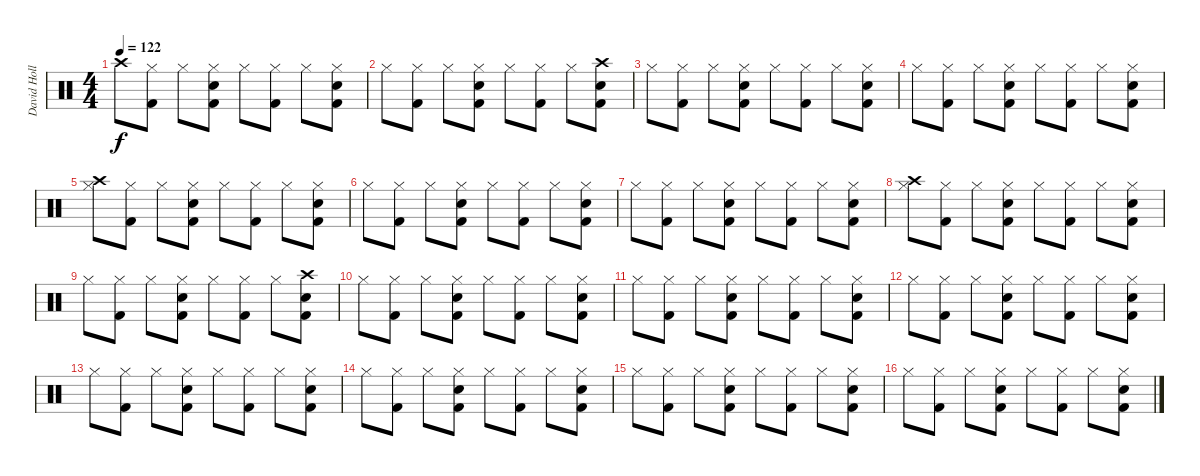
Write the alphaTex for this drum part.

\track ("David Holland" "David Holl") {instrument percussion}
\staff {score}
\articulation defaults
\ts (4 4)
\tempo 122
\clef neutral
\ks c "Crash high (hit)".8{dy f}
("Kick (hit) 2" "Hi-Hat (closed)").8 "Hi-Hat (closed)".8 ("Electric Snare (hit)" "Kick (hit) 2" "Hi-Hat (closed)").8 "Hi-Hat (closed)".8 ("Kick (hit) 2" "Hi-Hat (closed)").8 "Hi-Hat (closed)".8 ("Electric Snare (hit)" "Kick (hit) 2" "Hi-Hat (closed)").8 |
"Hi-Hat (closed)".8 ("Kick (hit) 2" "Hi-Hat (closed)").8 "Hi-Hat (closed)".8 ("Electric Snare (hit)" "Kick (hit) 2" "Hi-Hat (closed)").8 "Hi-Hat (closed)".8 ("Kick (hit) 2" "Hi-Hat (closed)").8 "Hi-Hat (closed)".8 ("Electric Snare (hit)" "Kick (hit) 2" "Crash high (hit)").8 |
"Hi-Hat (closed)".8 ("Kick (hit) 2" "Hi-Hat (closed)").8 "Hi-Hat (closed)".8 ("Electric Snare (hit)" "Kick (hit) 2" "Hi-Hat (closed)").8 "Hi-Hat (closed)".8 ("Kick (hit) 2" "Hi-Hat (closed)").8 "Hi-Hat (closed)".8 ("Electric Snare (hit)" "Kick (hit) 2" "Hi-Hat (closed)").8 |
"Hi-Hat (closed)".8 ("Kick (hit) 2" "Hi-Hat (closed)").8 "Hi-Hat (closed)".8 ("Electric Snare (hit)" "Kick (hit) 2" "Hi-Hat (closed)").8 "Hi-Hat (closed)".8 ("Kick (hit) 2" "Hi-Hat (closed)").8 "Hi-Hat (closed)".8 ("Electric Snare (hit)" "Kick (hit) 2" "Hi-Hat (closed)").8 |
("Crash high (hit)" "Hi-Hat (closed)").8 ("Kick (hit) 2" "Hi-Hat (closed)").8 "Hi-Hat (closed)".8 ("Electric Snare (hit)" "Kick (hit) 2" "Hi-Hat (closed)").8 "Hi-Hat (closed)".8 ("Kick (hit) 2" "Hi-Hat (closed)").8 "Hi-Hat (closed)".8 ("Electric Snare (hit)" "Kick (hit) 2" "Hi-Hat (closed)").8 |
"Hi-Hat (closed)".8 ("Kick (hit) 2" "Hi-Hat (closed)").8 "Hi-Hat (closed)".8 ("Electric Snare (hit)" "Kick (hit) 2" "Hi-Hat (closed)").8 "Hi-Hat (closed)".8 ("Kick (hit) 2" "Hi-Hat (closed)").8 "Hi-Hat (closed)".8 ("Electric Snare (hit)" "Kick (hit) 2" "Hi-Hat (closed)").8 |
"Hi-Hat (closed)".8 ("Kick (hit) 2" "Hi-Hat (closed)").8 "Hi-Hat (closed)".8 ("Electric Snare (hit)" "Kick (hit) 2" "Hi-Hat (closed)").8 "Hi-Hat (closed)".8 ("Kick (hit) 2" "Hi-Hat (closed)").8 "Hi-Hat (closed)".8 ("Electric Snare (hit)" "Kick (hit) 2" "Hi-Hat (closed)").8 |
("Crash high (hit)" "Hi-Hat (closed)").8 ("Kick (hit) 2" "Hi-Hat (closed)").8 "Hi-Hat (closed)".8 ("Electric Snare (hit)" "Kick (hit) 2" "Hi-Hat (closed)").8 "Hi-Hat (closed)".8 ("Kick (hit) 2" "Hi-Hat (closed)").8 "Hi-Hat (closed)".8 ("Electric Snare (hit)" "Kick (hit) 2" "Hi-Hat (closed)").8 |
"Hi-Hat (closed)".8 ("Kick (hit) 2" "Hi-Hat (closed)").8 "Hi-Hat (closed)".8 ("Electric Snare (hit)" "Kick (hit) 2" "Hi-Hat (closed)").8 "Hi-Hat (closed)".8 ("Kick (hit) 2" "Hi-Hat (closed)").8 "Hi-Hat (closed)".8 ("Electric Snare (hit)" "Kick (hit) 2" "Crash high (hit)").8 |
"Hi-Hat (closed)".8 ("Kick (hit) 2" "Hi-Hat (closed)").8 "Hi-Hat (closed)".8 ("Electric Snare (hit)" "Kick (hit) 2" "Hi-Hat (closed)").8 "Hi-Hat (closed)".8 ("Kick (hit) 2" "Hi-Hat (closed)").8 "Hi-Hat (closed)".8 ("Electric Snare (hit)" "Kick (hit) 2" "Hi-Hat (closed)").8 |
"Hi-Hat (closed)".8 ("Kick (hit) 2" "Hi-Hat (closed)").8 "Hi-Hat (closed)".8 ("Electric Snare (hit)" "Kick (hit) 2" "Hi-Hat (closed)").8 "Hi-Hat (closed)".8 ("Kick (hit) 2" "Hi-Hat (closed)").8 "Hi-Hat (closed)".8 ("Electric Snare (hit)" "Kick (hit) 2" "Hi-Hat (closed)").8 |
"Hi-Hat (closed)".8 ("Kick (hit) 2" "Hi-Hat (closed)").8 "Hi-Hat (closed)".8 ("Electric Snare (hit)" "Kick (hit) 2" "Hi-Hat (closed)").8 "Hi-Hat (closed)".8 ("Kick (hit) 2" "Hi-Hat (closed)").8 "Hi-Hat (closed)".8 ("Electric Snare (hit)" "Kick (hit) 2" "Hi-Hat (closed)").8 |
"Hi-Hat (closed)".8 ("Kick (hit) 2" "Hi-Hat (closed)").8 "Hi-Hat (closed)".8 ("Electric Snare (hit)" "Kick (hit) 2" "Hi-Hat (closed)").8 "Hi-Hat (closed)".8 ("Kick (hit) 2" "Hi-Hat (closed)").8 "Hi-Hat (closed)".8 ("Electric Snare (hit)" "Kick (hit) 2" "Hi-Hat (closed)").8 |
"Hi-Hat (closed)".8 ("Kick (hit) 2" "Hi-Hat (closed)").8 "Hi-Hat (closed)".8 ("Electric Snare (hit)" "Kick (hit) 2" "Hi-Hat (closed)").8 "Hi-Hat (closed)".8 ("Kick (hit) 2" "Hi-Hat (closed)").8 "Hi-Hat (closed)".8 ("Electric Snare (hit)" "Kick (hit) 2" "Hi-Hat (closed)").8 |
"Hi-Hat (closed)".8 ("Kick (hit) 2" "Hi-Hat (closed)").8 "Hi-Hat (closed)".8 ("Electric Snare (hit)" "Kick (hit) 2" "Hi-Hat (closed)").8 "Hi-Hat (closed)".8 ("Kick (hit) 2" "Hi-Hat (closed)").8 "Hi-Hat (closed)".8 ("Electric Snare (hit)" "Kick (hit) 2" "Hi-Hat (closed)").8 |
"Hi-Hat (closed)".8 ("Kick (hit) 2" "Hi-Hat (closed)").8 "Hi-Hat (closed)".8 ("Electric Snare (hit)" "Kick (hit) 2" "Hi-Hat (closed)").8 "Hi-Hat (closed)".8 ("Kick (hit) 2" "Hi-Hat (closed)").8 "Hi-Hat (closed)".8 ("Electric Snare (hit)" "Kick (hit) 2" "Hi-Hat (closed)").8
